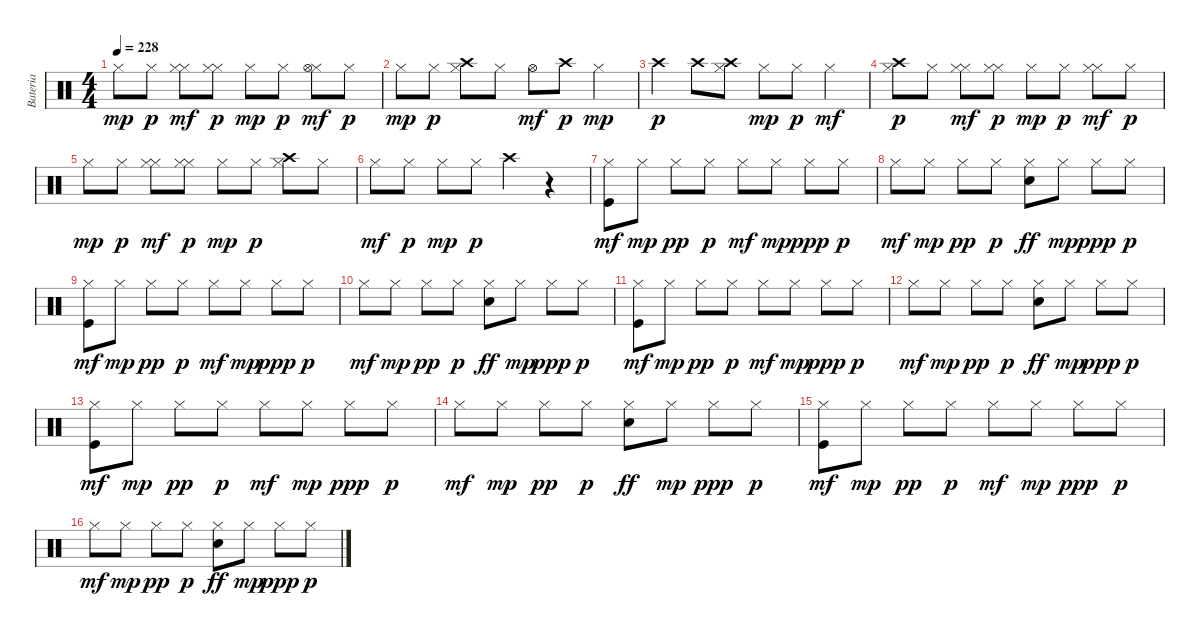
\track ("Bateria" "Bateria") {instrument percussion}
\staff {score}
\articulation defaults
\ts (4 4)
\tempo 228
\clef neutral
\ks c "Hi-Hat (closed)".8{dy mp} "Hi-Hat (closed)".8{dy p}
("Hi-Hat (closed)" "Hi-Hat (closed)").8{dy mf} ("Hi-Hat (closed)" "Hi-Hat (closed)").8{dy p} "Hi-Hat (closed)".8{dy mp} "Hi-Hat (closed)".8{dy p} ("Hi-Hat (closed)" "Hi-Hat (open)").8{dy mf} "Hi-Hat (closed)".8{dy p} |
"Hi-Hat (closed)".8{dy mp} "Hi-Hat (closed)".8{dy p} ("Hi-Hat (closed)" "Crash high (hit)").8 "Hi-Hat (closed)".8 "Hi-Hat (open)".8{dy mf} "Crash high (hit)".8{dy p} "Hi-Hat (closed)".4{dy mp} |
"Crash high (hit)".4{dy p} "Crash high (hit)".8 ("Crash high (hit)" "Hi-Hat (closed)").8 "Hi-Hat (closed)".8{dy mp} "Hi-Hat (closed)".8{dy p} "Hi-Hat (closed)".4{dy mf} |
("Hi-Hat (closed)" "Crash high (hit)").8{dy p} "Hi-Hat (closed)".8 ("Hi-Hat (closed)" "Hi-Hat (closed)").8{dy mf} ("Hi-Hat (closed)" "Hi-Hat (closed)").8{dy p} "Hi-Hat (closed)".8{dy mp} "Hi-Hat (closed)".8{dy p} ("Hi-Hat (closed)" "Hi-Hat (closed)").8{dy mf} "Hi-Hat (closed)".8{dy p} |
"Hi-Hat (closed)".8{dy mp} "Hi-Hat (closed)".8{dy p} ("Hi-Hat (closed)" "Hi-Hat (closed)").8{dy mf} ("Hi-Hat (closed)" "Hi-Hat (closed)").8{dy p} "Hi-Hat (closed)".8{dy mp} "Hi-Hat (closed)".8{dy p} ("Hi-Hat (closed)" "Crash high (hit)").8 "Hi-Hat (closed)".8 |
"Hi-Hat (closed)".8{dy mf} "Hi-Hat (closed)".8{dy p} "Hi-Hat (closed)".8{dy mp} "Hi-Hat (closed)".8{dy p} "Crash high (hit)".4 r.4 |
("Hi-Hat (closed)" "Kick (hit)").8{dy mf} "Hi-Hat (closed)".8{dy mp} "Hi-Hat (closed)".8{dy pp} "Hi-Hat (closed)".8{dy p} "Hi-Hat (closed)".8{dy mf} "Hi-Hat (closed)".8{dy mp} "Hi-Hat (closed)".8{dy ppp} "Hi-Hat (closed)".8{dy p} |
"Hi-Hat (closed)".8{dy mf} "Hi-Hat (closed)".8{dy mp} "Hi-Hat (closed)".8{dy pp} "Hi-Hat (closed)".8{dy p} ("Hi-Hat (closed)" "Electric Snare (hit)").8{dy ff} "Hi-Hat (closed)".8{dy mp} "Hi-Hat (closed)".8{dy ppp} "Hi-Hat (closed)".8{dy p} |
("Hi-Hat (closed)" "Kick (hit)").8{dy mf} "Hi-Hat (closed)".8{dy mp} "Hi-Hat (closed)".8{dy pp} "Hi-Hat (closed)".8{dy p} "Hi-Hat (closed)".8{dy mf} "Hi-Hat (closed)".8{dy mp} "Hi-Hat (closed)".8{dy ppp} "Hi-Hat (closed)".8{dy p} |
"Hi-Hat (closed)".8{dy mf} "Hi-Hat (closed)".8{dy mp} "Hi-Hat (closed)".8{dy pp} "Hi-Hat (closed)".8{dy p} ("Hi-Hat (closed)" "Electric Snare (hit)").8{dy ff} "Hi-Hat (closed)".8{dy mp} "Hi-Hat (closed)".8{dy ppp} "Hi-Hat (closed)".8{dy p} |
("Hi-Hat (closed)" "Kick (hit)").8{dy mf} "Hi-Hat (closed)".8{dy mp} "Hi-Hat (closed)".8{dy pp} "Hi-Hat (closed)".8{dy p} "Hi-Hat (closed)".8{dy mf} "Hi-Hat (closed)".8{dy mp} "Hi-Hat (closed)".8{dy ppp} "Hi-Hat (closed)".8{dy p} |
"Hi-Hat (closed)".8{dy mf} "Hi-Hat (closed)".8{dy mp} "Hi-Hat (closed)".8{dy pp} "Hi-Hat (closed)".8{dy p} ("Hi-Hat (closed)" "Electric Snare (hit)").8{dy ff} "Hi-Hat (closed)".8{dy mp} "Hi-Hat (closed)".8{dy ppp} "Hi-Hat (closed)".8{dy p} |
("Hi-Hat (closed)" "Kick (hit)").8{dy mf} "Hi-Hat (closed)".8{dy mp} "Hi-Hat (closed)".8{dy pp} "Hi-Hat (closed)".8{dy p} "Hi-Hat (closed)".8{dy mf} "Hi-Hat (closed)".8{dy mp} "Hi-Hat (closed)".8{dy ppp} "Hi-Hat (closed)".8{dy p} |
"Hi-Hat (closed)".8{dy mf} "Hi-Hat (closed)".8{dy mp} "Hi-Hat (closed)".8{dy pp} "Hi-Hat (closed)".8{dy p} ("Hi-Hat (closed)" "Electric Snare (hit)").8{dy ff} "Hi-Hat (closed)".8{dy mp} "Hi-Hat (closed)".8{dy ppp} "Hi-Hat (closed)".8{dy p} |
("Hi-Hat (closed)" "Kick (hit)").8{dy mf} "Hi-Hat (closed)".8{dy mp} "Hi-Hat (closed)".8{dy pp} "Hi-Hat (closed)".8{dy p} "Hi-Hat (closed)".8{dy mf} "Hi-Hat (closed)".8{dy mp} "Hi-Hat (closed)".8{dy ppp} "Hi-Hat (closed)".8{dy p} |
"Hi-Hat (closed)".8{dy mf} "Hi-Hat (closed)".8{dy mp} "Hi-Hat (closed)".8{dy pp} "Hi-Hat (closed)".8{dy p} ("Hi-Hat (closed)" "Electric Snare (hit)").8{dy ff} "Hi-Hat (closed)".8{dy mp} "Hi-Hat (closed)".8{dy ppp} "Hi-Hat (closed)".8{dy p}
